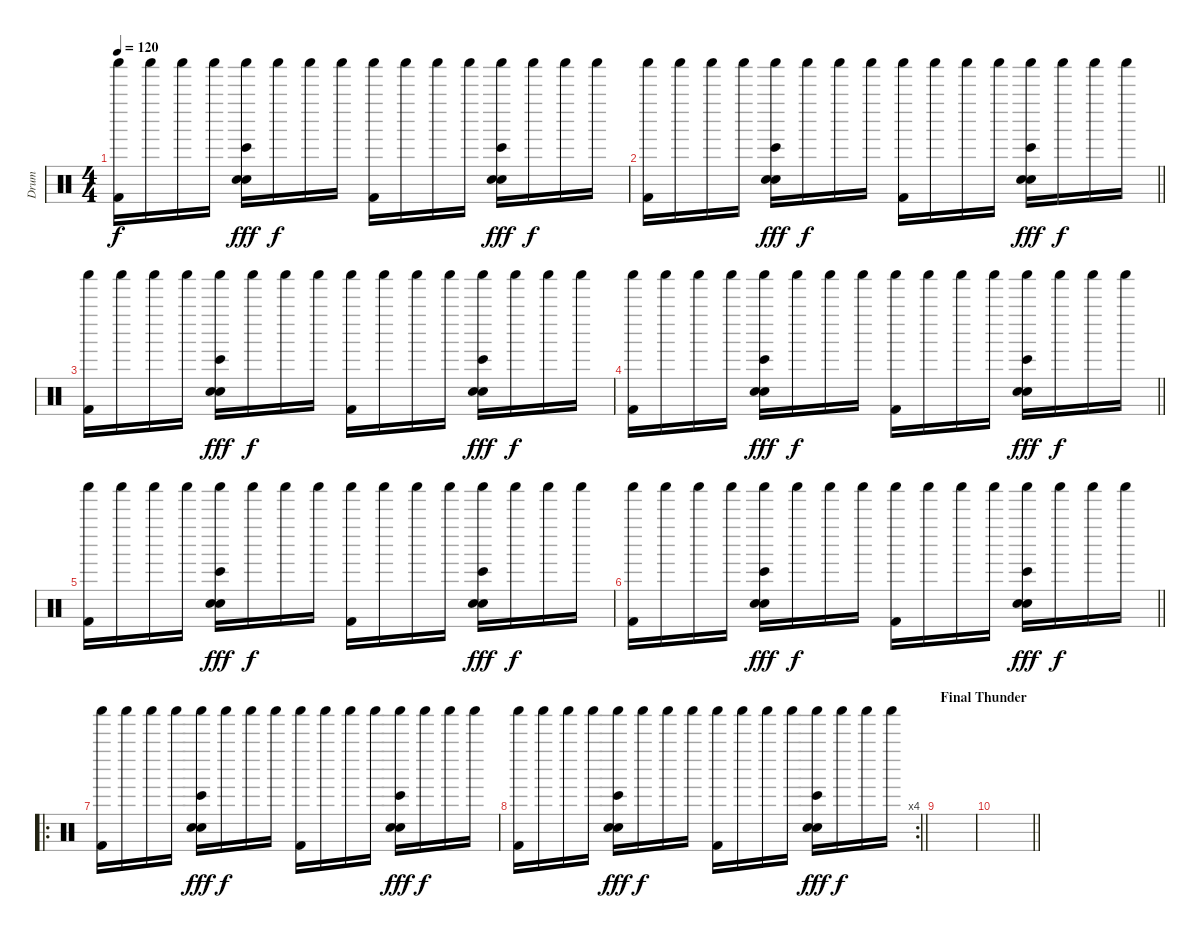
\track ("Drum" "Drum") {instrument percussion}
\staff {score}
\articulation defaults
\ts (4 4)
\tempo 120
\clef neutral
\ks c
("Kick (hit) 2" "Shaker (hit)").16{dy f} "Shaker (hit)".16 "Shaker (hit)".16 "Shaker (hit)".16 ("Electric Snare (hit)" "Shaker (hit)" "Hand Clap (hit)" "Bongo High (hit)").16{dy fff} "Shaker (hit)".16{dy f} "Shaker (hit)".16 "Shaker (hit)".16 ("Kick (hit) 2" "Shaker (hit)").16 "Shaker (hit)".16 "Shaker (hit)".16 "Shaker (hit)".16 ("Electric Snare (hit)" "Shaker (hit)" "Hand Clap (hit)" "Bongo High (hit)").16{dy fff} "Shaker (hit)".16{dy f} "Shaker (hit)".16 "Shaker (hit)".16 |
\barLineRight lightlight
("Kick (hit) 2" "Shaker (hit)").16 "Shaker (hit)".16 "Shaker (hit)".16 "Shaker (hit)".16 ("Electric Snare (hit)" "Shaker (hit)" "Hand Clap (hit)" "Bongo High (hit)").16{dy fff} "Shaker (hit)".16{dy f} "Shaker (hit)".16 "Shaker (hit)".16 ("Kick (hit) 2" "Shaker (hit)").16 "Shaker (hit)".16 "Shaker (hit)".16 "Shaker (hit)".16 ("Electric Snare (hit)" "Shaker (hit)" "Hand Clap (hit)" "Bongo High (hit)").16{dy fff} "Shaker (hit)".16{dy f} "Shaker (hit)".16 "Shaker (hit)".16 |
("Kick (hit) 2" "Shaker (hit)").16 "Shaker (hit)".16 "Shaker (hit)".16 "Shaker (hit)".16 ("Electric Snare (hit)" "Shaker (hit)" "Hand Clap (hit)" "Bongo High (hit)").16{dy fff} "Shaker (hit)".16{dy f} "Shaker (hit)".16 "Shaker (hit)".16 ("Kick (hit) 2" "Shaker (hit)").16 "Shaker (hit)".16 "Shaker (hit)".16 "Shaker (hit)".16 ("Electric Snare (hit)" "Shaker (hit)" "Hand Clap (hit)" "Bongo High (hit)").16{dy fff} "Shaker (hit)".16{dy f} "Shaker (hit)".16 "Shaker (hit)".16 |
\barLineRight lightlight
("Kick (hit) 2" "Shaker (hit)").16 "Shaker (hit)".16 "Shaker (hit)".16 "Shaker (hit)".16 ("Electric Snare (hit)" "Shaker (hit)" "Hand Clap (hit)" "Bongo High (hit)").16{dy fff} "Shaker (hit)".16{dy f} "Shaker (hit)".16 "Shaker (hit)".16 ("Kick (hit) 2" "Shaker (hit)").16 "Shaker (hit)".16 "Shaker (hit)".16 "Shaker (hit)".16 ("Electric Snare (hit)" "Shaker (hit)" "Hand Clap (hit)" "Bongo High (hit)").16{dy fff} "Shaker (hit)".16{dy f} "Shaker (hit)".16 "Shaker (hit)".16 |
("Kick (hit) 2" "Shaker (hit)").16 "Shaker (hit)".16 "Shaker (hit)".16 "Shaker (hit)".16 ("Electric Snare (hit)" "Shaker (hit)" "Hand Clap (hit)" "Bongo High (hit)").16{dy fff} "Shaker (hit)".16{dy f} "Shaker (hit)".16 "Shaker (hit)".16 ("Kick (hit) 2" "Shaker (hit)").16 "Shaker (hit)".16 "Shaker (hit)".16 "Shaker (hit)".16 ("Electric Snare (hit)" "Shaker (hit)" "Hand Clap (hit)" "Bongo High (hit)").16{dy fff} "Shaker (hit)".16{dy f} "Shaker (hit)".16 "Shaker (hit)".16 |
\barLineRight lightlight
("Kick (hit) 2" "Shaker (hit)").16 "Shaker (hit)".16 "Shaker (hit)".16 "Shaker (hit)".16 ("Electric Snare (hit)" "Shaker (hit)" "Hand Clap (hit)" "Bongo High (hit)").16{dy fff} "Shaker (hit)".16{dy f} "Shaker (hit)".16 "Shaker (hit)".16 ("Kick (hit) 2" "Shaker (hit)").16 "Shaker (hit)".16 "Shaker (hit)".16 "Shaker (hit)".16 ("Electric Snare (hit)" "Shaker (hit)" "Hand Clap (hit)" "Bongo High (hit)").16{dy fff} "Shaker (hit)".16{dy f} "Shaker (hit)".16 "Shaker (hit)".16 |
\ro
("Kick (hit) 2" "Shaker (hit)").16 "Shaker (hit)".16 "Shaker (hit)".16 "Shaker (hit)".16 ("Electric Snare (hit)" "Shaker (hit)" "Hand Clap (hit)" "Bongo High (hit)").16{dy fff} "Shaker (hit)".16{dy f} "Shaker (hit)".16 "Shaker (hit)".16 ("Kick (hit) 2" "Shaker (hit)").16 "Shaker (hit)".16 "Shaker (hit)".16 "Shaker (hit)".16 ("Electric Snare (hit)" "Shaker (hit)" "Hand Clap (hit)" "Bongo High (hit)").16{dy fff} "Shaker (hit)".16{dy f} "Shaker (hit)".16 "Shaker (hit)".16 |
\rc 4
\barLineRight lightlight
("Kick (hit) 2" "Shaker (hit)").16 "Shaker (hit)".16 "Shaker (hit)".16 "Shaker (hit)".16 ("Electric Snare (hit)" "Shaker (hit)" "Hand Clap (hit)" "Bongo High (hit)").16{dy fff} "Shaker (hit)".16{dy f} "Shaker (hit)".16 "Shaker (hit)".16 ("Kick (hit) 2" "Shaker (hit)").16 "Shaker (hit)".16 "Shaker (hit)".16 "Shaker (hit)".16 ("Electric Snare (hit)" "Shaker (hit)" "Hand Clap (hit)" "Bongo High (hit)").16{dy fff} "Shaker (hit)".16{dy f} "Shaker (hit)".16 "Shaker (hit)".16 |
\section ("" "Final Thunder")
|
\barLineRight lightlight
